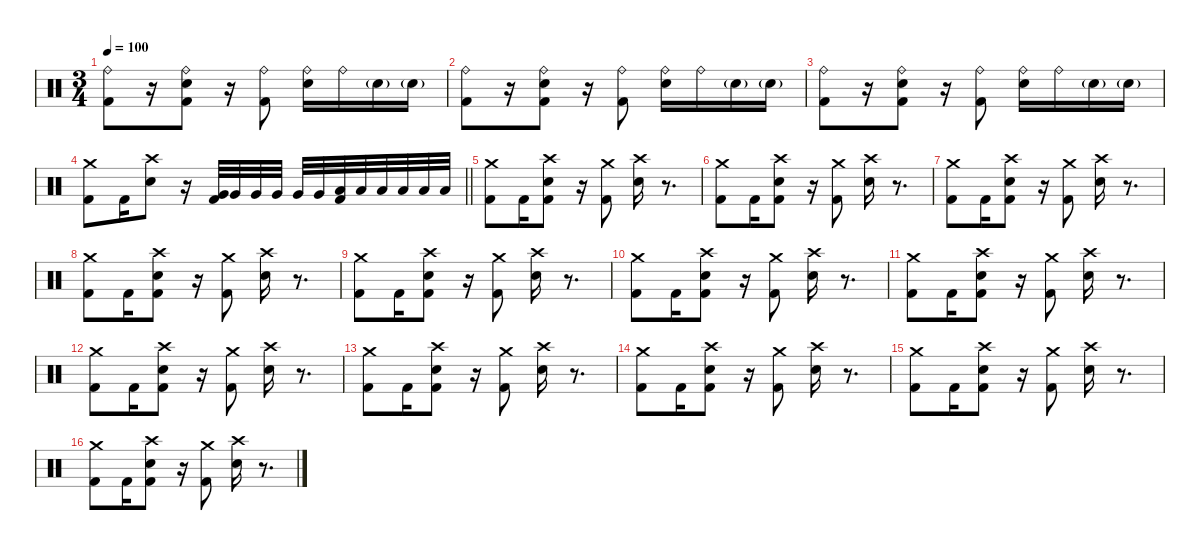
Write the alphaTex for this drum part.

\defaultSystemsLayout 4
\hideDynamics
\bracketExtendMode nobrackets
\singleTrackTrackNamePolicy hidden
\multiTrackTrackNamePolicy hidden
\firstSystemTrackNameMode fullname
\firstSystemTrackNameOrientation horizontal
\otherSystemsTrackNameOrientation horizontal
\track ("Bill Ward - Drums" "drm.") {instrument percussion}
\staff {score}
\articulation defaults
\ts (3 4)
\tempo 100
\clef neutral
\ks c
("Ride (bell)" "Kick (hit) 2").8{dy f} r.16 ("Ride (bell)" "Snare (hit) 2" "Kick (hit) 2").8 r.16 ("Ride (bell)" "Kick (hit) 2").8 ("Ride (bell)" "Snare (hit) 2").16 "Ride (bell)".16 "Snare (hit) 2"{g}.16{dy mf} "Snare (hit) 2"{g}.16 |
("Ride (bell)" "Kick (hit) 2").8{dy f} r.16 ("Ride (bell)" "Snare (hit) 2" "Kick (hit) 2").8 r.16 ("Ride (bell)" "Kick (hit) 2").8 ("Ride (bell)" "Snare (hit) 2").16 "Ride (bell)".16 "Snare (hit) 2"{g}.16{dy mf} "Snare (hit) 2"{g}.16 |
("Ride (bell)" "Kick (hit) 2").8{dy f} r.16 ("Ride (bell)" "Snare (hit) 2" "Kick (hit) 2").8 r.16 ("Ride (bell)" "Kick (hit) 2").8 ("Ride (bell)" "Snare (hit) 2").16 "Ride (bell)".16 "Snare (hit) 2"{g}.16{dy mf} "Snare (hit) 2"{g}.16 |
\barLineRight lightlight
("Crash medium (hit)" "Kick (hit) 2").8{dy f} "Kick (hit) 2".16 ("Crash high (hit)" "Snare (hit) 2").8 r.16 ("Very Low Tom (hit)" "Kick (hit) 2").32 "Very Low Tom (hit)".32 "Very Low Tom (hit)".32 "Very Low Tom (hit)".32 "Very Low Tom (hit)".32 "Very Low Tom (hit)".32 ("Low Floor Tom (hit)" "Kick (hit) 2").32 "Low Floor Tom (hit)".32 "Low Floor Tom (hit)".32 "Low Floor Tom (hit)".32 "Low Floor Tom (hit)".32 "Low Floor Tom (hit)".32 |
\section ("" "")
("Crash medium (hit)" "Kick (hit) 2").8 "Kick (hit) 2".16 ("Crash high (hit)" "Snare (hit) 2" "Kick (hit) 2").8 r.16 ("Crash medium (hit)" "Kick (hit) 2").8 ("Crash high (hit)" "Snare (hit) 2").16 r.8{d} |
("Crash medium (hit)" "Kick (hit) 2").8 "Kick (hit) 2".16 ("Crash high (hit)" "Snare (hit) 2" "Kick (hit) 2").8 r.16 ("Crash medium (hit)" "Kick (hit) 2").8 ("Crash high (hit)" "Snare (hit) 2").16 r.8{d} |
("Crash medium (hit)" "Kick (hit) 2").8 "Kick (hit) 2".16 ("Crash high (hit)" "Snare (hit) 2" "Kick (hit) 2").8 r.16 ("Crash medium (hit)" "Kick (hit) 2").8 ("Crash high (hit)" "Snare (hit) 2").16 r.8{d} |
("Crash medium (hit)" "Kick (hit) 2").8 "Kick (hit) 2".16 ("Crash high (hit)" "Snare (hit) 2" "Kick (hit) 2").8 r.16 ("Crash medium (hit)" "Kick (hit) 2").8 ("Crash high (hit)" "Snare (hit) 2").16 r.8{d} |
("Crash medium (hit)" "Kick (hit) 2").8 "Kick (hit) 2".16 ("Crash high (hit)" "Snare (hit) 2" "Kick (hit) 2").8 r.16 ("Crash medium (hit)" "Kick (hit) 2").8 ("Crash high (hit)" "Snare (hit) 2").16 r.8{d} |
("Crash medium (hit)" "Kick (hit) 2").8 "Kick (hit) 2".16 ("Crash high (hit)" "Snare (hit) 2" "Kick (hit) 2").8 r.16 ("Crash medium (hit)" "Kick (hit) 2").8 ("Crash high (hit)" "Snare (hit) 2").16 r.8{d} |
("Crash medium (hit)" "Kick (hit) 2").8 "Kick (hit) 2".16 ("Crash high (hit)" "Snare (hit) 2" "Kick (hit) 2").8 r.16 ("Crash medium (hit)" "Kick (hit) 2").8 ("Crash high (hit)" "Snare (hit) 2").16 r.8{d} |
("Crash medium (hit)" "Kick (hit) 2").8 "Kick (hit) 2".16 ("Crash high (hit)" "Snare (hit) 2" "Kick (hit) 2").8 r.16 ("Crash medium (hit)" "Kick (hit) 2").8 ("Crash high (hit)" "Snare (hit) 2").16 r.8{d} |
("Crash medium (hit)" "Kick (hit) 2").8 "Kick (hit) 2".16 ("Crash high (hit)" "Snare (hit) 2" "Kick (hit) 2").8 r.16 ("Crash medium (hit)" "Kick (hit) 2").8 ("Crash high (hit)" "Snare (hit) 2").16 r.8{d} |
("Crash medium (hit)" "Kick (hit) 2").8 "Kick (hit) 2".16 ("Crash high (hit)" "Snare (hit) 2" "Kick (hit) 2").8 r.16 ("Crash medium (hit)" "Kick (hit) 2").8 ("Crash high (hit)" "Snare (hit) 2").16 r.8{d} |
("Crash medium (hit)" "Kick (hit) 2").8 "Kick (hit) 2".16 ("Crash high (hit)" "Snare (hit) 2" "Kick (hit) 2").8 r.16 ("Crash medium (hit)" "Kick (hit) 2").8 ("Crash high (hit)" "Snare (hit) 2").16 r.8{d} |
("Crash medium (hit)" "Kick (hit) 2").8 "Kick (hit) 2".16 ("Crash high (hit)" "Snare (hit) 2" "Kick (hit) 2").8 r.16 ("Crash medium (hit)" "Kick (hit) 2").8 ("Crash high (hit)" "Snare (hit) 2").16 r.8{d}
